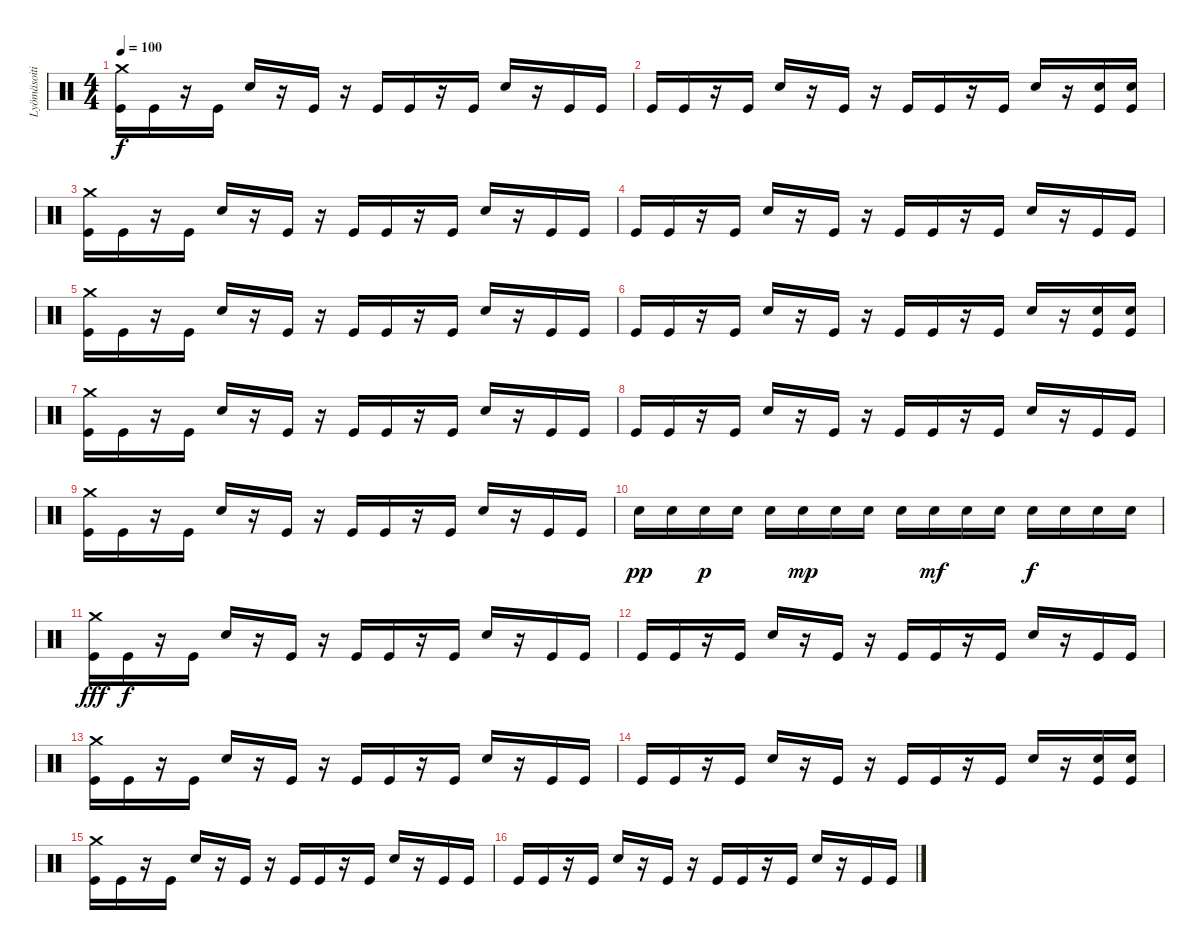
\track ("Lyömäsoitin" "Lyömäsoiti") {instrument percussion}
\staff {score}
\articulation defaults
\ts (4 4)
\tempo 100
\clef neutral
\ks c
("Crash medium (hit)" "Kick (hit)").16{dy f} "Kick (hit)".16 r.16 "Kick (hit)".16 "Electric Snare (hit)".16 r.16 "Kick (hit)".16 r.16 "Kick (hit)".16 "Kick (hit)".16 r.16 "Kick (hit)".16 "Electric Snare (hit)".16 r.16 "Kick (hit)".16 "Kick (hit)".16 |
"Kick (hit)".16 "Kick (hit)".16 r.16 "Kick (hit)".16 "Electric Snare (hit)".16 r.16 "Kick (hit)".16 r.16 "Kick (hit)".16 "Kick (hit)".16 r.16 "Kick (hit)".16 "Electric Snare (hit)".16 r.16 ("Kick (hit)" "Electric Snare (hit)").16 ("Kick (hit)" "Electric Snare (hit)").16 |
("Crash medium (hit)" "Kick (hit)").16 "Kick (hit)".16 r.16 "Kick (hit)".16 "Electric Snare (hit)".16 r.16 "Kick (hit)".16 r.16 "Kick (hit)".16 "Kick (hit)".16 r.16 "Kick (hit)".16 "Electric Snare (hit)".16 r.16 "Kick (hit)".16 "Kick (hit)".16 |
"Kick (hit)".16 "Kick (hit)".16 r.16 "Kick (hit)".16 "Electric Snare (hit)".16 r.16 "Kick (hit)".16 r.16 "Kick (hit)".16 "Kick (hit)".16 r.16 "Kick (hit)".16 "Electric Snare (hit)".16 r.16 "Kick (hit)".16 "Kick (hit)".16 |
("Crash medium (hit)" "Kick (hit)").16 "Kick (hit)".16 r.16 "Kick (hit)".16 "Electric Snare (hit)".16 r.16 "Kick (hit)".16 r.16 "Kick (hit)".16 "Kick (hit)".16 r.16 "Kick (hit)".16 "Electric Snare (hit)".16 r.16 "Kick (hit)".16 "Kick (hit)".16 |
"Kick (hit)".16 "Kick (hit)".16 r.16 "Kick (hit)".16 "Electric Snare (hit)".16 r.16 "Kick (hit)".16 r.16 "Kick (hit)".16 "Kick (hit)".16 r.16 "Kick (hit)".16 "Electric Snare (hit)".16 r.16 ("Kick (hit)" "Electric Snare (hit)").16 ("Kick (hit)" "Electric Snare (hit)").16 |
("Crash medium (hit)" "Kick (hit)").16 "Kick (hit)".16 r.16 "Kick (hit)".16 "Electric Snare (hit)".16 r.16 "Kick (hit)".16 r.16 "Kick (hit)".16 "Kick (hit)".16 r.16 "Kick (hit)".16 "Electric Snare (hit)".16 r.16 "Kick (hit)".16 "Kick (hit)".16 |
"Kick (hit)".16 "Kick (hit)".16 r.16 "Kick (hit)".16 "Electric Snare (hit)".16 r.16 "Kick (hit)".16 r.16 "Kick (hit)".16 "Kick (hit)".16 r.16 "Kick (hit)".16 "Electric Snare (hit)".16 r.16 "Kick (hit)".16 "Kick (hit)".16 |
("Crash medium (hit)" "Kick (hit)").16 "Kick (hit)".16 r.16 "Kick (hit)".16 "Electric Snare (hit)".16 r.16 "Kick (hit)".16 r.16 "Kick (hit)".16 "Kick (hit)".16 r.16 "Kick (hit)".16 "Electric Snare (hit)".16 r.16 "Kick (hit)".16 "Kick (hit)".16 |
"Electric Snare (hit)".16{dy pp} "Electric Snare (hit)".16 "Electric Snare (hit)".16{dy p} "Electric Snare (hit)".16 "Electric Snare (hit)".16 "Electric Snare (hit)".16{dy mp} "Electric Snare (hit)".16 "Electric Snare (hit)".16 "Electric Snare (hit)".16 "Electric Snare (hit)".16{dy mf} "Electric Snare (hit)".16 "Electric Snare (hit)".16 "Electric Snare (hit)".16{dy f} "Electric Snare (hit)".16 "Electric Snare (hit)".16 "Electric Snare (hit)".16 |
("Crash medium (hit)" "Kick (hit)").16{dy fff} "Kick (hit)".16{dy f} r.16 "Kick (hit)".16 "Electric Snare (hit)".16 r.16 "Kick (hit)".16 r.16 "Kick (hit)".16 "Kick (hit)".16 r.16 "Kick (hit)".16 "Electric Snare (hit)".16 r.16 "Kick (hit)".16 "Kick (hit)".16 |
"Kick (hit)".16 "Kick (hit)".16 r.16 "Kick (hit)".16 "Electric Snare (hit)".16 r.16 "Kick (hit)".16 r.16 "Kick (hit)".16 "Kick (hit)".16 r.16 "Kick (hit)".16 "Electric Snare (hit)".16 r.16 "Kick (hit)".16 "Kick (hit)".16 |
("Crash medium (hit)" "Kick (hit)").16 "Kick (hit)".16 r.16 "Kick (hit)".16 "Electric Snare (hit)".16 r.16 "Kick (hit)".16 r.16 "Kick (hit)".16 "Kick (hit)".16 r.16 "Kick (hit)".16 "Electric Snare (hit)".16 r.16 "Kick (hit)".16 "Kick (hit)".16 |
"Kick (hit)".16 "Kick (hit)".16 r.16 "Kick (hit)".16 "Electric Snare (hit)".16 r.16 "Kick (hit)".16 r.16 "Kick (hit)".16 "Kick (hit)".16 r.16 "Kick (hit)".16 "Electric Snare (hit)".16 r.16 ("Kick (hit)" "Electric Snare (hit)").16 ("Kick (hit)" "Electric Snare (hit)").16 |
("Crash medium (hit)" "Kick (hit)").16 "Kick (hit)".16 r.16 "Kick (hit)".16 "Electric Snare (hit)".16 r.16 "Kick (hit)".16 r.16 "Kick (hit)".16 "Kick (hit)".16 r.16 "Kick (hit)".16 "Electric Snare (hit)".16 r.16 "Kick (hit)".16 "Kick (hit)".16 |
"Kick (hit)".16 "Kick (hit)".16 r.16 "Kick (hit)".16 "Electric Snare (hit)".16 r.16 "Kick (hit)".16 r.16 "Kick (hit)".16 "Kick (hit)".16 r.16 "Kick (hit)".16 "Electric Snare (hit)".16 r.16 "Kick (hit)".16 "Kick (hit)".16
